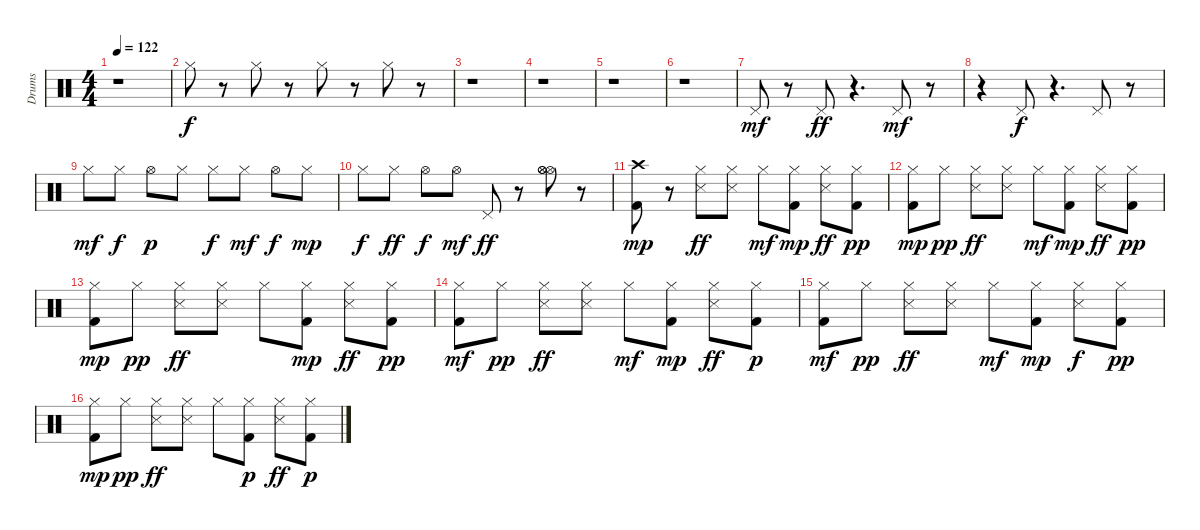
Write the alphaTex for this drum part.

\track ("Drums    " "Drums    ") {instrument percussion}
\staff {score}
\articulation defaults
\ts (4 4)
\tempo 122
\clef neutral
\ks c
r.1{dy f} |
"Hi-Hat (closed)".8 r.8 "Hi-Hat (closed)".8 r.8 "Hi-Hat (closed)".8 r.8 "Hi-Hat (closed)".8 r.8 |
r.1 |
r.1 |
r.1 |
r.1 |
"Pedal Hi-Hat (hit)".8{dy mf} r.8 "Pedal Hi-Hat (hit)".8{dy ff} r.4{d} "Pedal Hi-Hat (hit)".8{dy mf} r.8 |
r.4 "Pedal Hi-Hat (hit)".8{dy f} r.4{d} "Pedal Hi-Hat (hit)".8 r.8 |
"Hi-Hat (closed)".8{dy mf} "Hi-Hat (closed)".8{dy f} "Hi-Hat (open)".8{dy p} "Hi-Hat (closed)".8 "Hi-Hat (closed)".8{dy f} "Hi-Hat (closed)".8{dy mf} "Hi-Hat (open)".8{dy f} "Hi-Hat (closed)".8{dy mp} |
"Hi-Hat (closed)".8{dy f} "Hi-Hat (closed)".8{dy ff} "Hi-Hat (open)".8{dy f} "Hi-Hat (open)".8{dy mf} "Pedal Hi-Hat (hit)".8{dy ff} r.8 ("Hi-Hat (open)" "Hi-Hat (open)" "Hi-Hat (open)").8 r.8 |
("Crash high (hit)" "Kick (hit) 2").8{dy mp} r.8 ("Hi-Hat (closed)" "Snare (side stick) 3").8{dy ff} ("Hi-Hat (closed)" "Snare (side stick) 3").8 "Hi-Hat (closed)".8{dy mf} ("Hi-Hat (closed)" "Kick (hit) 2").8{dy mp} ("Hi-Hat (closed)" "Snare (side stick) 3").8{dy ff} ("Hi-Hat (closed)" "Kick (hit) 2").8{dy pp} |
("Hi-Hat (closed)" "Kick (hit) 2").8{dy mp} "Hi-Hat (closed)".8{dy pp} ("Hi-Hat (closed)" "Snare (side stick) 3").8{dy ff} ("Hi-Hat (closed)" "Snare (side stick) 3").8 "Hi-Hat (closed)".8{dy mf} ("Hi-Hat (closed)" "Kick (hit) 2").8{dy mp} ("Hi-Hat (closed)" "Snare (side stick) 3").8{dy ff} ("Hi-Hat (closed)" "Kick (hit) 2").8{dy pp} |
("Hi-Hat (closed)" "Kick (hit) 2").8{dy mp} "Hi-Hat (closed)".8{dy pp} ("Hi-Hat (closed)" "Snare (side stick) 3").8{dy ff} ("Hi-Hat (closed)" "Snare (side stick) 3").8 "Hi-Hat (closed)".8 ("Hi-Hat (closed)" "Kick (hit) 2").8{dy mp} ("Hi-Hat (closed)" "Snare (side stick) 3").8{dy ff} ("Hi-Hat (closed)" "Kick (hit) 2").8{dy pp} |
("Kick (hit) 2" "Hi-Hat (closed)").8{dy mf} "Hi-Hat (closed)".8{dy pp} ("Hi-Hat (closed)" "Snare (side stick) 3").8{dy ff} ("Hi-Hat (closed)" "Snare (side stick) 3").8 "Hi-Hat (closed)".8{dy mf} ("Hi-Hat (closed)" "Kick (hit) 2").8{dy mp} ("Snare (side stick) 3" "Hi-Hat (closed)").8{dy ff} ("Hi-Hat (closed)" "Kick (hit) 2").8{dy p} |
("Kick (hit) 2" "Hi-Hat (closed)").8{dy mf} "Hi-Hat (closed)".8{dy pp} ("Snare (side stick) 3" "Hi-Hat (closed)").8{dy ff} ("Hi-Hat (closed)" "Snare (side stick) 3").8 "Hi-Hat (closed)".8{dy mf} ("Hi-Hat (closed)" "Kick (hit) 2").8{dy mp} ("Hi-Hat (closed)" "Snare (side stick) 3").8{dy f} ("Hi-Hat (closed)" "Kick (hit) 2").8{dy pp} |
("Hi-Hat (closed)" "Kick (hit) 2").8{dy mp} "Hi-Hat (closed)".8{dy pp} ("Hi-Hat (closed)" "Snare (side stick) 3").8{dy ff} ("Hi-Hat (closed)" "Snare (side stick) 3").8 "Hi-Hat (closed)".8 ("Kick (hit) 2" "Hi-Hat (closed)").8{dy p} ("Snare (side stick) 3" "Hi-Hat (closed)").8{dy ff} ("Hi-Hat (closed)" "Kick (hit) 2").8{dy p}
